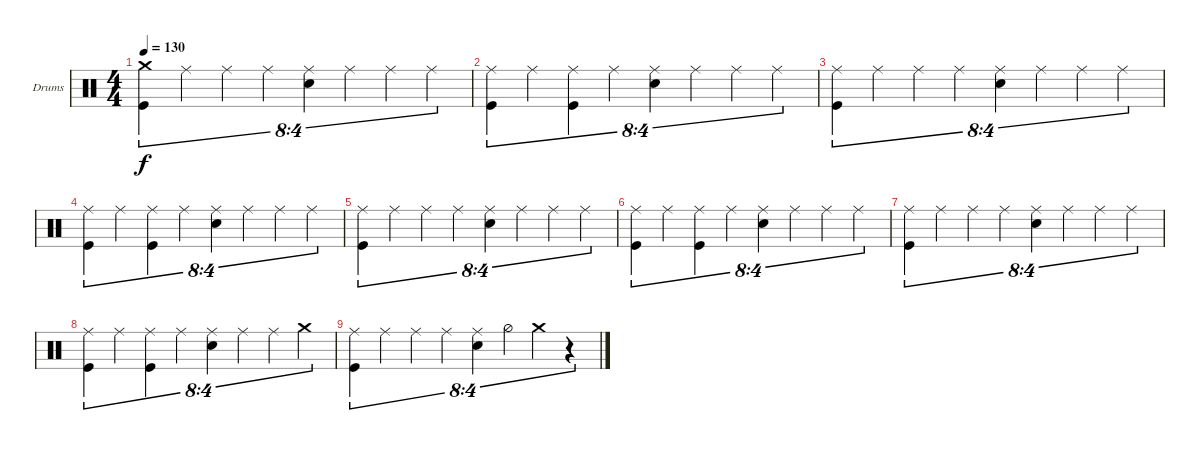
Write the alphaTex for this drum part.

\defaultSystemsLayout 4
\bracketExtendMode groupsimilarinstruments
\firstSystemTrackNameOrientation horizontal
\otherSystemsTrackNameOrientation horizontal
\track ("Drumkit" "Drums") {instrument percussion}
\staff {score}
\articulation defaults
\ts (4 4)
\tempo 130
\clef neutral
\ks c
("Kick (hit)" "Crash medium (hit)").4{tu (8 4) dy f} "Ride (middle)".4{tu (8 4)} "Ride (middle)".4{tu (8 4)} "Ride (middle)".4{tu (8 4)} ("Snare (hit) 2" "Ride (middle)").4{tu (8 4)} "Ride (middle)".4{tu (8 4)} "Ride (middle)".4{tu (8 4)} "Ride (middle)".4{tu (8 4)} |
("Ride (middle)" "Kick (hit)").4{tu (8 4)} "Ride (middle)".4{tu (8 4)} ("Ride (middle)" "Kick (hit)").4{tu (8 4)} "Ride (middle)".4{tu (8 4)} ("Ride (middle)" "Snare (hit) 2").4{tu (8 4)} "Ride (middle)".4{tu (8 4)} "Ride (middle)".4{tu (8 4)} "Ride (middle)".4{tu (8 4)} |
("Ride (middle)" "Kick (hit)").4{tu (8 4)} "Ride (middle)".4{tu (8 4)} "Ride (middle)".4{tu (8 4)} "Ride (middle)".4{tu (8 4)} ("Ride (middle)" "Snare (hit) 2").4{tu (8 4)} "Ride (middle)".4{tu (8 4)} "Ride (middle)".4{tu (8 4)} "Ride (middle)".4{tu (8 4)} |
("Ride (middle)" "Kick (hit)").4{tu (8 4)} "Ride (middle)".4{tu (8 4)} ("Ride (middle)" "Kick (hit)").4{tu (8 4)} "Ride (middle)".4{tu (8 4)} ("Ride (middle)" "Snare (hit) 2").4{tu (8 4)} "Ride (middle)".4{tu (8 4)} "Ride (middle)".4{tu (8 4)} "Ride (middle)".4{tu (8 4)} |
("Ride (middle)" "Kick (hit)").4{tu (8 4)} "Ride (middle)".4{tu (8 4)} "Ride (middle)".4{tu (8 4)} "Ride (middle)".4{tu (8 4)} ("Ride (middle)" "Snare (hit) 2").4{tu (8 4)} "Ride (middle)".4{tu (8 4)} "Ride (middle)".4{tu (8 4)} "Ride (middle)".4{tu (8 4)} |
("Ride (middle)" "Kick (hit)").4{tu (8 4)} "Ride (middle)".4{tu (8 4)} ("Ride (middle)" "Kick (hit)").4{tu (8 4)} "Ride (middle)".4{tu (8 4)} ("Ride (middle)" "Snare (hit) 2").4{tu (8 4)} "Ride (middle)".4{tu (8 4)} "Ride (middle)".4{tu (8 4)} "Ride (middle)".4{tu (8 4)} |
("Ride (middle)" "Kick (hit)").4{tu (8 4)} "Ride (middle)".4{tu (8 4)} "Ride (middle)".4{tu (8 4)} "Ride (middle)".4{tu (8 4)} ("Ride (middle)" "Snare (hit) 2").4{tu (8 4)} "Ride (middle)".4{tu (8 4)} "Ride (middle)".4{tu (8 4)} "Ride (middle)".4{tu (8 4)} |
("Ride (middle)" "Kick (hit)").4{tu (8 4)} "Ride (middle)".4{tu (8 4)} ("Ride (middle)" "Kick (hit)").4{tu (8 4)} "Ride (middle)".4{tu (8 4)} ("Ride (middle)" "Snare (hit) 2").4{tu (8 4)} "Ride (middle)".4{tu (8 4)} "Ride (middle)".4{tu (8 4)} "Crash medium (hit)".4{tu (8 4)} |
("Ride (middle)" "Kick (hit)").4{tu (8 4)} "Ride (middle)".4{tu (8 4)} "Ride (middle)".4{tu (8 4)} "Ride (middle)".4{tu (8 4)} ("Ride (middle)" "Snare (hit) 2").4{tu (8 4)} "Hi-Hat (half)".4{tu (8 4)} "Crash medium (hit)".4{tu (8 4)} r.4{tu (8 4)}
